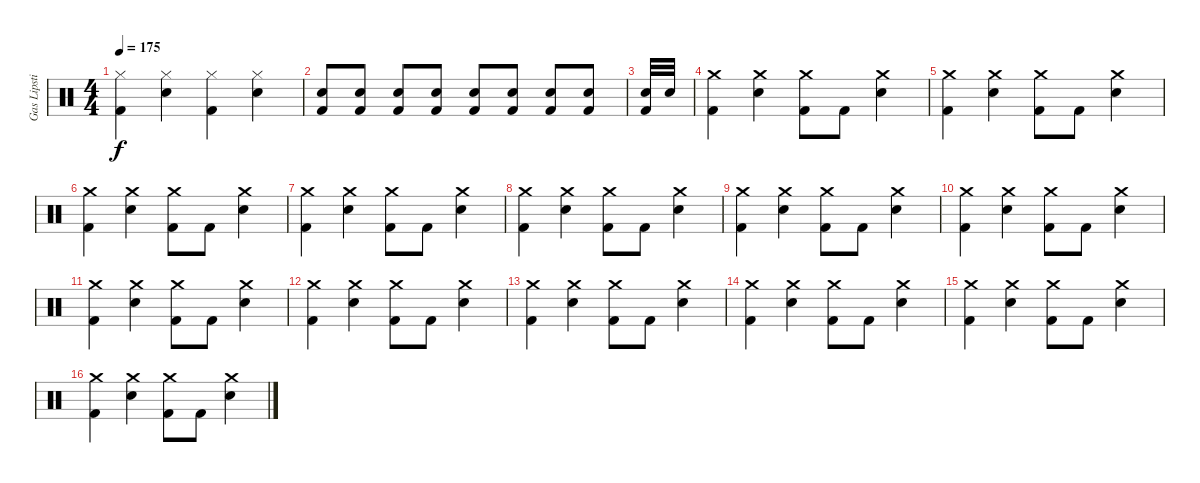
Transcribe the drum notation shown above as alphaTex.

\track ("Gas Lipstick" "Gas Lipsti") {instrument percussion}
\staff {score}
\articulation defaults
\ts (4 4)
\tempo 175
\clef neutral
\ks c
("Kick (hit) 2" "Hi-Hat (closed)").4{dy f} ("Snare (hit) 2" "Hi-Hat (closed)").4 ("Kick (hit) 2" "Hi-Hat (closed)").4 ("Snare (hit) 2" "Hi-Hat (closed)").4 |
("Kick (hit) 2" "Snare (hit) 2").8 ("Kick (hit) 2" "Snare (hit) 2").8 ("Kick (hit) 2" "Snare (hit) 2").8 ("Kick (hit) 2" "Snare (hit) 2").8 ("Kick (hit) 2" "Snare (hit) 2").8 ("Kick (hit) 2" "Snare (hit) 2").8 ("Kick (hit) 2" "Snare (hit) 2").8 ("Kick (hit) 2" "Snare (hit) 2").8 |
("Kick (hit) 2" "Snare (hit) 2").32 "Snare (hit) 2".32 |
("Kick (hit) 2" "Crash medium (hit)").4 ("Snare (hit) 2" "Crash medium (hit)").4 ("Kick (hit) 2" "Crash medium (hit)").8 "Kick (hit) 2".8 ("Snare (hit) 2" "Crash medium (hit)").4 |
("Kick (hit) 2" "Crash medium (hit)").4 ("Snare (hit) 2" "Crash medium (hit)").4 ("Kick (hit) 2" "Crash medium (hit)").8 "Kick (hit) 2".8 ("Snare (hit) 2" "Crash medium (hit)").4 |
("Kick (hit) 2" "Crash medium (hit)").4 ("Snare (hit) 2" "Crash medium (hit)").4 ("Kick (hit) 2" "Crash medium (hit)").8 "Kick (hit) 2".8 ("Snare (hit) 2" "Crash medium (hit)").4 |
("Kick (hit) 2" "Crash medium (hit)").4 ("Snare (hit) 2" "Crash medium (hit)").4 ("Kick (hit) 2" "Crash medium (hit)").8 "Kick (hit) 2".8 ("Snare (hit) 2" "Crash medium (hit)").4 |
("Kick (hit) 2" "Crash medium (hit)").4 ("Snare (hit) 2" "Crash medium (hit)").4 ("Kick (hit) 2" "Crash medium (hit)").8 "Kick (hit) 2".8 ("Snare (hit) 2" "Crash medium (hit)").4 |
("Kick (hit) 2" "Crash medium (hit)").4 ("Snare (hit) 2" "Crash medium (hit)").4 ("Kick (hit) 2" "Crash medium (hit)").8 "Kick (hit) 2".8 ("Snare (hit) 2" "Crash medium (hit)").4 |
("Kick (hit) 2" "Crash medium (hit)").4 ("Snare (hit) 2" "Crash medium (hit)").4 ("Kick (hit) 2" "Crash medium (hit)").8 "Kick (hit) 2".8 ("Snare (hit) 2" "Crash medium (hit)").4 |
("Kick (hit) 2" "Crash medium (hit)").4 ("Snare (hit) 2" "Crash medium (hit)").4 ("Kick (hit) 2" "Crash medium (hit)").8 "Kick (hit) 2".8 ("Snare (hit) 2" "Crash medium (hit)").4 |
("Kick (hit) 2" "Crash medium (hit)").4 ("Snare (hit) 2" "Crash medium (hit)").4 ("Kick (hit) 2" "Crash medium (hit)").8 "Kick (hit) 2".8 ("Snare (hit) 2" "Crash medium (hit)").4 |
("Kick (hit) 2" "Crash medium (hit)").4 ("Snare (hit) 2" "Crash medium (hit)").4 ("Kick (hit) 2" "Crash medium (hit)").8 "Kick (hit) 2".8 ("Snare (hit) 2" "Crash medium (hit)").4 |
("Kick (hit) 2" "Crash medium (hit)").4 ("Snare (hit) 2" "Crash medium (hit)").4 ("Kick (hit) 2" "Crash medium (hit)").8 "Kick (hit) 2".8 ("Snare (hit) 2" "Crash medium (hit)").4 |
("Kick (hit) 2" "Crash medium (hit)").4 ("Snare (hit) 2" "Crash medium (hit)").4 ("Kick (hit) 2" "Crash medium (hit)").8 "Kick (hit) 2".8 ("Snare (hit) 2" "Crash medium (hit)").4 |
("Kick (hit) 2" "Crash medium (hit)").4 ("Snare (hit) 2" "Crash medium (hit)").4 ("Kick (hit) 2" "Crash medium (hit)").8 "Kick (hit) 2".8 ("Snare (hit) 2" "Crash medium (hit)").4
